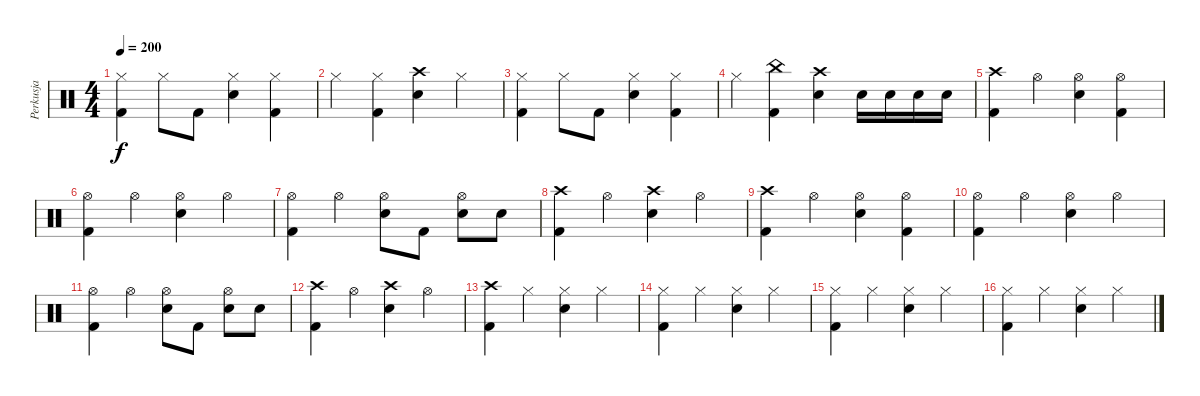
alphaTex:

\track ("Perkusja" "Perkusja") {instrument percussion}
\staff {score}
\articulation defaults
\ts (4 4)
\tempo 200
\clef neutral
\ks c
("Hi-Hat (closed)" "Kick (hit) 2").4{dy f} "Hi-Hat (closed)".8 "Kick (hit) 2".8 ("Hi-Hat (closed)" "Snare (hit) 2").4 ("Hi-Hat (closed)" "Kick (hit) 2").4 |
"Hi-Hat (closed)".4 ("Hi-Hat (closed)" "Kick (hit) 2").4 ("Crash high (hit)" "Snare (hit) 2").4 "Hi-Hat (closed)".4 |
("Hi-Hat (closed)" "Kick (hit) 2").4 "Hi-Hat (closed)".8 "Kick (hit) 2".8 ("Hi-Hat (closed)" "Snare (hit) 2").4 ("Hi-Hat (closed)" "Kick (hit) 2").4 |
"Hi-Hat (closed)".4 ("China (hit)" "Kick (hit) 2").4 ("Crash high (hit)" "Snare (hit) 2").4 "Electric Snare (hit)".16 "Electric Snare (hit)".16 "Electric Snare (hit)".16 "Electric Snare (hit)".16 |
("Crash high (hit)" "Kick (hit) 2").4 "Hi-Hat (open)".4 ("Hi-Hat (open)" "Snare (hit) 2").4 ("Hi-Hat (open)" "Kick (hit) 2").4 |
("Hi-Hat (open)" "Kick (hit) 2").4 "Hi-Hat (open)".4 ("Hi-Hat (open)" "Snare (hit) 2").4 "Hi-Hat (open)".4 |
("Hi-Hat (open)" "Kick (hit) 2").4 "Hi-Hat (open)".4 ("Hi-Hat (open)" "Snare (hit) 2").8 "Kick (hit) 2".8 ("Hi-Hat (open)" "Electric Snare (hit)").8 "Electric Snare (hit)".8 |
("Crash high (hit)" "Kick (hit) 2").4 "Hi-Hat (open)".4 ("Crash high (hit)" "Snare (hit) 2").4 "Hi-Hat (open)".4 |
("Crash high (hit)" "Kick (hit) 2").4 "Hi-Hat (open)".4 ("Hi-Hat (open)" "Snare (hit) 2").4 ("Hi-Hat (open)" "Kick (hit) 2").4 |
("Hi-Hat (open)" "Kick (hit) 2").4 "Hi-Hat (open)".4 ("Hi-Hat (open)" "Snare (hit) 2").4 "Hi-Hat (open)".4 |
("Hi-Hat (open)" "Kick (hit) 2").4 "Hi-Hat (open)".4 ("Hi-Hat (open)" "Snare (hit) 2").8 "Kick (hit) 2".8 ("Hi-Hat (open)" "Electric Snare (hit)").8 "Electric Snare (hit)".8 |
("Crash high (hit)" "Kick (hit) 2").4 "Hi-Hat (open)".4 ("Crash high (hit)" "Snare (hit) 2").4 "Hi-Hat (open)".4 |
("Crash high (hit)" "Kick (hit) 2").4 "Hi-Hat (closed)".4 ("Hi-Hat (closed)" "Snare (hit) 2").4 "Hi-Hat (closed)".4 |
("Hi-Hat (closed)" "Kick (hit) 2").4 "Hi-Hat (closed)".4 ("Hi-Hat (closed)" "Snare (hit) 2").4 "Hi-Hat (closed)".4 |
("Hi-Hat (closed)" "Kick (hit) 2").4 "Hi-Hat (closed)".4 ("Hi-Hat (closed)" "Snare (hit) 2").4 "Hi-Hat (closed)".4 |
("Hi-Hat (closed)" "Kick (hit) 2").4 "Hi-Hat (closed)".4 ("Hi-Hat (closed)" "Snare (hit) 2").4 "Hi-Hat (closed)".4
